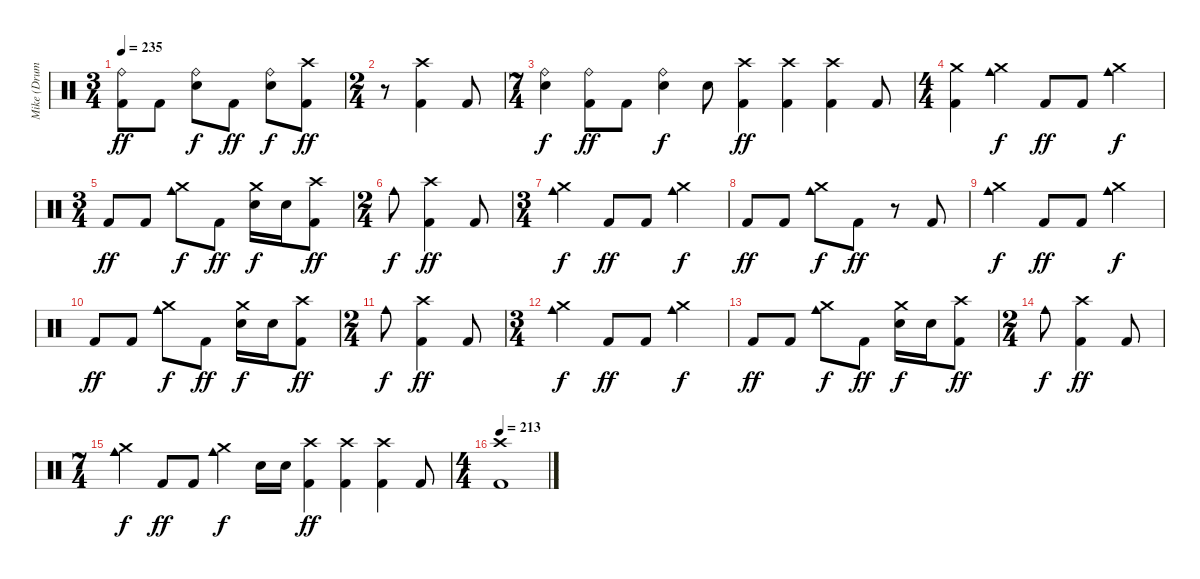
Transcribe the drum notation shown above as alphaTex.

\track ("Mike (Drums)" "Mike (Drum") {instrument percussion}
\staff {score}
\articulation defaults
\ts (3 4)
\tempo 235
\clef neutral
\ks c
("Ride (bell)" "Kick (hit) 2").8{dy ff} "Kick (hit) 2".8 ("Ride (bell)" "Electric Snare (hit)").8{dy f} "Kick (hit) 2".8{dy ff} ("Ride (bell)" "Electric Snare (hit)").8{dy f} ("Crash high (hit)" "Kick (hit) 2").8{dy ff} |
\ts (2 4)
r.8 ("Crash high (hit)" "Kick (hit) 2").4 "Kick (hit) 2".8 |
\ts (7 4)
("Ride (bell)" "Electric Snare (hit)").4{dy f} ("Ride (bell)" "Kick (hit) 2").8{dy ff} "Kick (hit) 2".8 ("Ride (bell)" "Electric Snare (hit)").4{dy f} "Electric Snare (hit)".8 ("Crash high (hit)" "Kick (hit) 2").4{dy ff} ("Crash high (hit)" "Kick (hit) 2").4 ("Crash high (hit)" "Kick (hit) 2").4 "Kick (hit) 2".8 |
\ts (4 4)
("Crash medium (hit)" "Kick (hit) 2").4 ("Crash medium (hit)" "Cowbell medium (hit)").4{dy f} "Kick (hit) 2".8{dy ff} "Kick (hit) 2".8 ("Crash medium (hit)" "Cowbell medium (hit)").4{dy f} |
\ts (3 4)
"Kick (hit) 2".8{dy ff} "Kick (hit) 2".8 ("Crash medium (hit)" "Cowbell medium (hit)").8{dy f} "Kick (hit) 2".8{dy ff} ("Crash medium (hit)" "Electric Snare (hit)").16{dy f} "Electric Snare (hit)".16 ("Crash high (hit)" "Kick (hit) 2").8{dy ff} |
\ts (2 4)
"Cowbell medium (hit)".8{dy f} ("Crash high (hit)" "Kick (hit) 2").4{dy ff} "Kick (hit) 2".8 |
\ts (3 4)
("Crash medium (hit)" "Cowbell medium (hit)").4{dy f} "Kick (hit) 2".8{dy ff} "Kick (hit) 2".8 ("Crash medium (hit)" "Cowbell medium (hit)").4{dy f} |
"Kick (hit) 2".8{dy ff} "Kick (hit) 2".8 ("Crash medium (hit)" "Cowbell medium (hit)").8{dy f} "Kick (hit) 2".8{dy ff} r.8 "Kick (hit) 2".8 |
("Crash medium (hit)" "Cowbell medium (hit)").4{dy f} "Kick (hit) 2".8{dy ff} "Kick (hit) 2".8 ("Crash medium (hit)" "Cowbell medium (hit)").4{dy f} |
"Kick (hit) 2".8{dy ff} "Kick (hit) 2".8 ("Crash medium (hit)" "Cowbell medium (hit)").8{dy f} "Kick (hit) 2".8{dy ff} ("Crash medium (hit)" "Electric Snare (hit)").16{dy f} "Electric Snare (hit)".16 ("Crash high (hit)" "Kick (hit) 2").8{dy ff} |
\ts (2 4)
"Cowbell medium (hit)".8{dy f} ("Crash high (hit)" "Kick (hit) 2").4{dy ff} "Kick (hit) 2".8 |
\ts (3 4)
("Crash medium (hit)" "Cowbell medium (hit)").4{dy f} "Kick (hit) 2".8{dy ff} "Kick (hit) 2".8 ("Crash medium (hit)" "Cowbell medium (hit)").4{dy f} |
"Kick (hit) 2".8{dy ff} "Kick (hit) 2".8 ("Crash medium (hit)" "Cowbell medium (hit)").8{dy f} "Kick (hit) 2".8{dy ff} ("Crash medium (hit)" "Electric Snare (hit)").16{dy f} "Electric Snare (hit)".16 ("Crash high (hit)" "Kick (hit) 2").8{dy ff} |
\ts (2 4)
"Cowbell medium (hit)".8{dy f} ("Crash high (hit)" "Kick (hit) 2").4{dy ff} "Kick (hit) 2".8 |
\ts (7 4)
("Crash medium (hit)" "Cowbell medium (hit)").4{dy f} "Kick (hit) 2".8{dy ff} "Kick (hit) 2".8 ("Crash medium (hit)" "Cowbell medium (hit)").4{dy f} "Electric Snare (hit)".16 "Electric Snare (hit)".16 ("Crash high (hit)" "Kick (hit) 2").4{dy ff} ("Crash high (hit)" "Kick (hit) 2").4 ("Crash high (hit)" "Kick (hit) 2").4 "Kick (hit) 2".8 |
\ts (4 4)
\tempo 213
("Crash high (hit)" "Kick (hit) 2").1
